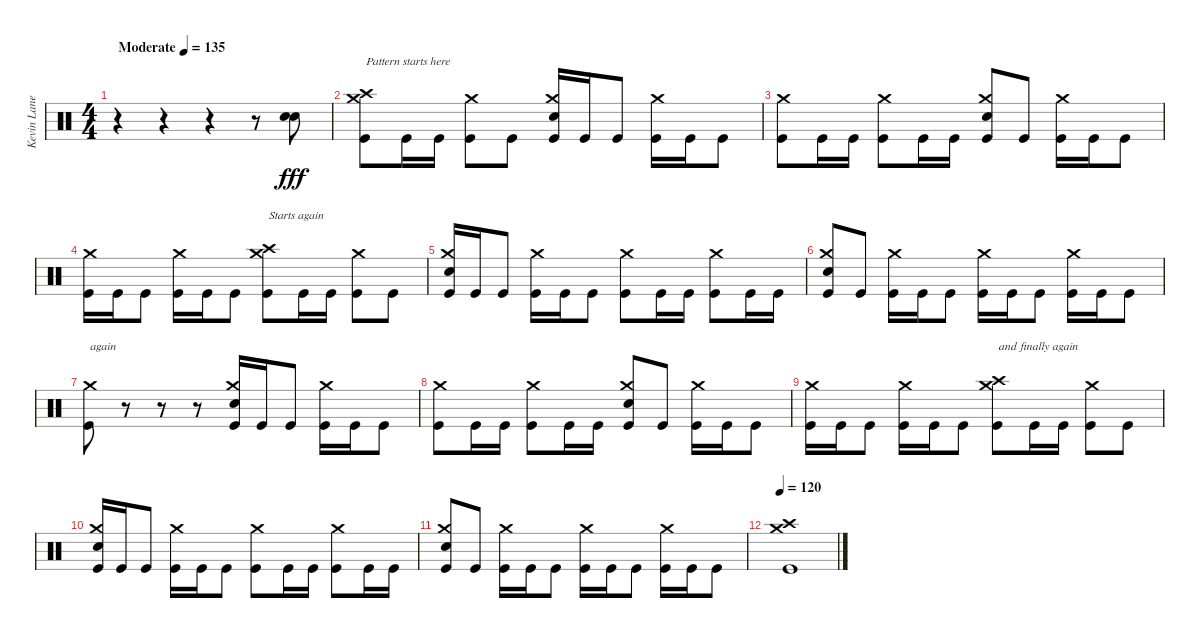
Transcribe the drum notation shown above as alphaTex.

\track ("Kevin Lane" "Kevin Lane") {instrument percussion}
\staff {score}
\articulation defaults
\ts (4 4)
\tempo (135 "Moderate")
\clef neutral
\ks c
r.4{dy fff} r.4 r.4 r.8 ("Snare (hit) 2" "Snare (hit) 2").8{bd 240} |
("Crash high (hit)" "Crash medium (hit)" "Kick (hit)").8{txt "Pattern starts here"} "Kick (hit)".16 "Kick (hit)".16 ("Crash medium (hit)" "Kick (hit)").8 "Kick (hit)".8 ("Crash medium (hit)" "Snare (hit) 2" "Kick (hit)").16 "Kick (hit)".16 "Kick (hit)".8 ("Crash medium (hit)" "Kick (hit)").16 "Kick (hit)".16 "Kick (hit)".8 |
("Crash medium (hit)" "Kick (hit)").8 "Kick (hit)".16 "Kick (hit)".16 ("Crash medium (hit)" "Kick (hit)").8 "Kick (hit)".16 "Kick (hit)".16 ("Crash medium (hit)" "Snare (hit) 2" "Kick (hit)").8 "Kick (hit)".8 ("Crash medium (hit)" "Kick (hit)").16 "Kick (hit)".16 "Kick (hit)".8 |
("Crash medium (hit)" "Kick (hit)").16 "Kick (hit)".16 "Kick (hit)".8 ("Crash medium (hit)" "Kick (hit)").16 "Kick (hit)".16 "Kick (hit)".8 ("Crash high (hit)" "Crash medium (hit)" "Kick (hit)").8{txt "Starts again"} "Kick (hit)".16 "Kick (hit)".16 ("Crash medium (hit)" "Kick (hit)").8 "Kick (hit)".8 |
("Crash medium (hit)" "Snare (hit) 2" "Kick (hit)").16 "Kick (hit)".16 "Kick (hit)".8 ("Crash medium (hit)" "Kick (hit)").16 "Kick (hit)".16 "Kick (hit)".8 ("Crash medium (hit)" "Kick (hit)").8 "Kick (hit)".16 "Kick (hit)".16 ("Crash medium (hit)" "Kick (hit)").8 "Kick (hit)".16 "Kick (hit)".16 |
("Crash medium (hit)" "Snare (hit) 2" "Kick (hit)").8 "Kick (hit)".8 ("Crash medium (hit)" "Kick (hit)").16 "Kick (hit)".16 "Kick (hit)".8 ("Crash medium (hit)" "Kick (hit)").16 "Kick (hit)".16 "Kick (hit)".8 ("Crash medium (hit)" "Kick (hit)").16 "Kick (hit)".16 "Kick (hit)".8 |
("Crash medium (hit)" "Kick (hit)").8{txt "again"} r.8{volume 0} r.8 r.8 ("Crash medium (hit)" "Snare (hit) 2" "Kick (hit)").16{volume 13} "Kick (hit)".16 "Kick (hit)".8 ("Crash medium (hit)" "Kick (hit)").16 "Kick (hit)".16 "Kick (hit)".8 |
("Crash medium (hit)" "Kick (hit)").8 "Kick (hit)".16 "Kick (hit)".16 ("Crash medium (hit)" "Kick (hit)").8 "Kick (hit)".16 "Kick (hit)".16 ("Crash medium (hit)" "Snare (hit) 2" "Kick (hit)").8 "Kick (hit)".8 ("Crash medium (hit)" "Kick (hit)").16 "Kick (hit)".16 "Kick (hit)".8 |
("Crash medium (hit)" "Kick (hit)").16 "Kick (hit)".16 "Kick (hit)".8 ("Crash medium (hit)" "Kick (hit)").16 "Kick (hit)".16 "Kick (hit)".8 ("Crash high (hit)" "Crash medium (hit)" "Kick (hit)").8{txt "and finally again "} "Kick (hit)".16 "Kick (hit)".16 ("Crash medium (hit)" "Kick (hit)").8 "Kick (hit)".8 |
("Crash medium (hit)" "Snare (hit) 2" "Kick (hit)").16 "Kick (hit)".16 "Kick (hit)".8 ("Crash medium (hit)" "Kick (hit)").16 "Kick (hit)".16 "Kick (hit)".8 ("Crash medium (hit)" "Kick (hit)").8 "Kick (hit)".16 "Kick (hit)".16 ("Crash medium (hit)" "Kick (hit)").8 "Kick (hit)".16 "Kick (hit)".16 |
("Crash medium (hit)" "Snare (hit) 2" "Kick (hit)").8 "Kick (hit)".8 ("Crash medium (hit)" "Kick (hit)").16 "Kick (hit)".16 "Kick (hit)".8 ("Crash medium (hit)" "Kick (hit)").16 "Kick (hit)".16 "Kick (hit)".8 ("Crash medium (hit)" "Kick (hit)").16 "Kick (hit)".16 "Kick (hit)".8 |
\tempo 120
("Crash high (hit)" "Crash medium (hit)" "Kick (hit)").1
